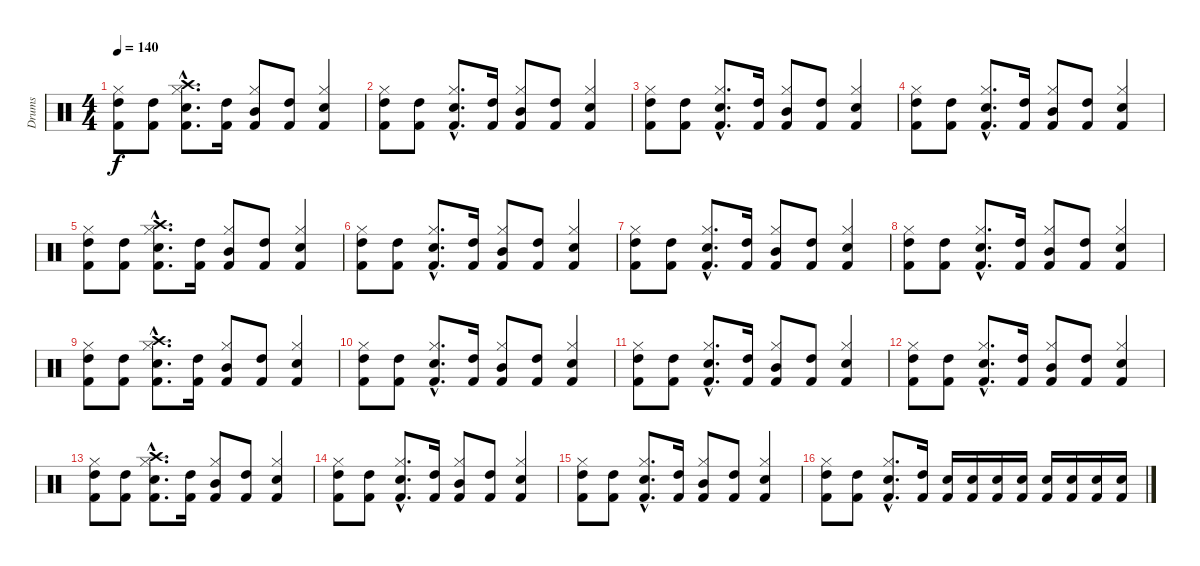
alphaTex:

\track ("Drums" "Drums") {instrument percussion}
\staff {score}
\articulation defaults
\ts (4 4)
\tempo 140
\clef neutral
\ks c
("Kick (hit) 2" "High Tom (hit)" "Hi-Hat (closed)").8{dy f} ("Kick (hit) 2" "High Tom (hit)").8 ("Kick (hit) 2"{hac} "Electric Snare (hit)"{hac} "Crash high (hit)"{hac} "Hi-Hat (closed)"{hac}).8{d} ("Kick (hit) 2" "High Tom (hit)").16 ("Kick (hit) 2" "Mid Tom (hit)" "Hi-Hat (closed)").8 ("Kick (hit) 2" "High Tom (hit)").8 ("Kick (hit) 2" "Electric Snare (hit)" "Hi-Hat (closed)").4 |
("Kick (hit) 2" "High Tom (hit)" "Hi-Hat (closed)").8 ("Kick (hit) 2" "High Tom (hit)").8 ("Kick (hit) 2"{hac} "Electric Snare (hit)"{hac} "Hi-Hat (closed)"{hac}).8{d} ("Kick (hit) 2" "High Tom (hit)").16 ("Kick (hit) 2" "Mid Tom (hit)" "Hi-Hat (closed)").8 ("Kick (hit) 2" "High Tom (hit)").8 ("Kick (hit) 2" "Electric Snare (hit)" "Hi-Hat (closed)").4 |
("Kick (hit) 2" "High Tom (hit)" "Hi-Hat (closed)").8 ("Kick (hit) 2" "High Tom (hit)").8 ("Kick (hit) 2"{hac} "Electric Snare (hit)"{hac} "Hi-Hat (closed)"{hac}).8{d} ("Kick (hit) 2" "High Tom (hit)").16 ("Kick (hit) 2" "Mid Tom (hit)" "Hi-Hat (closed)").8 ("Kick (hit) 2" "High Tom (hit)").8 ("Kick (hit) 2" "Electric Snare (hit)" "Hi-Hat (closed)").4 |
("Kick (hit) 2" "High Tom (hit)" "Hi-Hat (closed)").8 ("Kick (hit) 2" "High Tom (hit)").8 ("Kick (hit) 2"{hac} "Electric Snare (hit)"{hac} "Hi-Hat (closed)"{hac}).8{d} ("Kick (hit) 2" "High Tom (hit)").16 ("Kick (hit) 2" "Mid Tom (hit)" "Hi-Hat (closed)").8 ("Kick (hit) 2" "High Tom (hit)").8 ("Kick (hit) 2" "Electric Snare (hit)" "Hi-Hat (closed)").4 |
("Kick (hit) 2" "High Tom (hit)" "Hi-Hat (closed)").8 ("Kick (hit) 2" "High Tom (hit)").8 ("Kick (hit) 2"{hac} "Electric Snare (hit)"{hac} "Crash high (hit)"{hac} "Hi-Hat (closed)"{hac}).8{d} ("Kick (hit) 2" "High Tom (hit)").16 ("Kick (hit) 2" "Mid Tom (hit)" "Hi-Hat (closed)").8 ("Kick (hit) 2" "High Tom (hit)").8 ("Kick (hit) 2" "Electric Snare (hit)" "Hi-Hat (closed)").4 |
("Kick (hit) 2" "High Tom (hit)" "Hi-Hat (closed)").8 ("Kick (hit) 2" "High Tom (hit)").8 ("Kick (hit) 2"{hac} "Electric Snare (hit)"{hac} "Hi-Hat (closed)"{hac}).8{d} ("Kick (hit) 2" "High Tom (hit)").16 ("Kick (hit) 2" "Mid Tom (hit)" "Hi-Hat (closed)").8 ("Kick (hit) 2" "High Tom (hit)").8 ("Kick (hit) 2" "Electric Snare (hit)" "Hi-Hat (closed)").4 |
("Kick (hit) 2" "High Tom (hit)" "Hi-Hat (closed)").8 ("Kick (hit) 2" "High Tom (hit)").8 ("Kick (hit) 2"{hac} "Electric Snare (hit)"{hac} "Hi-Hat (closed)"{hac}).8{d} ("Kick (hit) 2" "High Tom (hit)").16 ("Kick (hit) 2" "Mid Tom (hit)" "Hi-Hat (closed)").8 ("Kick (hit) 2" "High Tom (hit)").8 ("Kick (hit) 2" "Electric Snare (hit)" "Hi-Hat (closed)").4 |
("Kick (hit) 2" "High Tom (hit)" "Hi-Hat (closed)").8 ("Kick (hit) 2" "High Tom (hit)").8 ("Kick (hit) 2"{hac} "Electric Snare (hit)"{hac} "Hi-Hat (closed)"{hac}).8{d} ("Kick (hit) 2" "High Tom (hit)").16 ("Kick (hit) 2" "Mid Tom (hit)" "Hi-Hat (closed)").8 ("Kick (hit) 2" "High Tom (hit)").8 ("Kick (hit) 2" "Electric Snare (hit)" "Hi-Hat (closed)").4 |
("Kick (hit) 2" "High Tom (hit)" "Hi-Hat (closed)").8 ("Kick (hit) 2" "High Tom (hit)").8 ("Kick (hit) 2"{hac} "Electric Snare (hit)"{hac} "Crash high (hit)"{hac} "Hi-Hat (closed)"{hac}).8{d} ("Kick (hit) 2" "High Tom (hit)").16 ("Kick (hit) 2" "Mid Tom (hit)" "Hi-Hat (closed)").8 ("Kick (hit) 2" "High Tom (hit)").8 ("Kick (hit) 2" "Electric Snare (hit)" "Hi-Hat (closed)").4 |
("Kick (hit) 2" "High Tom (hit)" "Hi-Hat (closed)").8 ("Kick (hit) 2" "High Tom (hit)").8 ("Kick (hit) 2"{hac} "Electric Snare (hit)"{hac} "Hi-Hat (closed)"{hac}).8{d} ("Kick (hit) 2" "High Tom (hit)").16 ("Kick (hit) 2" "Mid Tom (hit)" "Hi-Hat (closed)").8 ("Kick (hit) 2" "High Tom (hit)").8 ("Kick (hit) 2" "Electric Snare (hit)" "Hi-Hat (closed)").4 |
("Kick (hit) 2" "High Tom (hit)" "Hi-Hat (closed)").8 ("Kick (hit) 2" "High Tom (hit)").8 ("Kick (hit) 2"{hac} "Electric Snare (hit)"{hac} "Hi-Hat (closed)"{hac}).8{d} ("Kick (hit) 2" "High Tom (hit)").16 ("Kick (hit) 2" "Mid Tom (hit)" "Hi-Hat (closed)").8 ("Kick (hit) 2" "High Tom (hit)").8 ("Kick (hit) 2" "Electric Snare (hit)" "Hi-Hat (closed)").4 |
("Kick (hit) 2" "High Tom (hit)" "Hi-Hat (closed)").8 ("Kick (hit) 2" "High Tom (hit)").8 ("Kick (hit) 2"{hac} "Electric Snare (hit)"{hac} "Hi-Hat (closed)"{hac}).8{d} ("Kick (hit) 2" "High Tom (hit)").16 ("Kick (hit) 2" "Mid Tom (hit)" "Hi-Hat (closed)").8 ("Kick (hit) 2" "High Tom (hit)").8 ("Kick (hit) 2" "Electric Snare (hit)" "Hi-Hat (closed)").4 |
("Kick (hit) 2" "High Tom (hit)" "Hi-Hat (closed)").8 ("Kick (hit) 2" "High Tom (hit)").8 ("Kick (hit) 2"{hac} "Electric Snare (hit)"{hac} "Crash high (hit)"{hac} "Hi-Hat (closed)"{hac}).8{d} ("Kick (hit) 2" "High Tom (hit)").16 ("Kick (hit) 2" "Mid Tom (hit)" "Hi-Hat (closed)").8 ("Kick (hit) 2" "High Tom (hit)").8 ("Kick (hit) 2" "Electric Snare (hit)" "Hi-Hat (closed)").4 |
("Kick (hit) 2" "High Tom (hit)" "Hi-Hat (closed)").8 ("Kick (hit) 2" "High Tom (hit)").8 ("Kick (hit) 2"{hac} "Electric Snare (hit)"{hac} "Hi-Hat (closed)"{hac}).8{d} ("Kick (hit) 2" "High Tom (hit)").16 ("Kick (hit) 2" "Mid Tom (hit)" "Hi-Hat (closed)").8 ("Kick (hit) 2" "High Tom (hit)").8 ("Kick (hit) 2" "Electric Snare (hit)" "Hi-Hat (closed)").4 |
("Kick (hit) 2" "High Tom (hit)" "Hi-Hat (closed)").8 ("Kick (hit) 2" "High Tom (hit)").8 ("Kick (hit) 2"{hac} "Electric Snare (hit)"{hac} "Hi-Hat (closed)"{hac}).8{d} ("Kick (hit) 2" "High Tom (hit)").16 ("Kick (hit) 2" "Mid Tom (hit)" "Hi-Hat (closed)").8 ("Kick (hit) 2" "High Tom (hit)").8 ("Kick (hit) 2" "Electric Snare (hit)" "Hi-Hat (closed)").4 |
("Kick (hit) 2" "High Tom (hit)" "Hi-Hat (closed)").8 ("Kick (hit) 2" "High Tom (hit)").8 ("Kick (hit) 2"{hac} "Electric Snare (hit)"{hac} "Hi-Hat (closed)"{hac}).8{d} ("Kick (hit) 2" "High Tom (hit)").16 ("Kick (hit) 2" "Electric Snare (hit)").16 ("Kick (hit) 2" "Electric Snare (hit)").16 ("Kick (hit) 2" "Electric Snare (hit)").16 ("Kick (hit) 2" "Electric Snare (hit)").16 ("Kick (hit) 2" "Electric Snare (hit)").16 ("Kick (hit) 2" "Electric Snare (hit)").16 ("Kick (hit) 2" "Electric Snare (hit)").16 ("Kick (hit) 2" "Electric Snare (hit)").16
